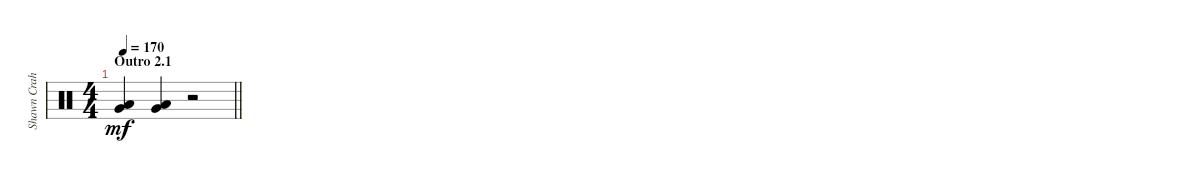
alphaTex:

\track ("Shawn Crahan" "Shawn Crah") {instrument percussion}
\staff {score}
\articulation defaults
\ts (4 4)
\section ("" "Outro 2.1")
\tempo 170
\clef neutral
\barLineRight lightlight
\ks c
("Very Low Tom (hit)" "Low Floor Tom (hit)").4{dy mf} ("Very Low Tom (hit)" "Low Floor Tom (hit)").4 r.2
